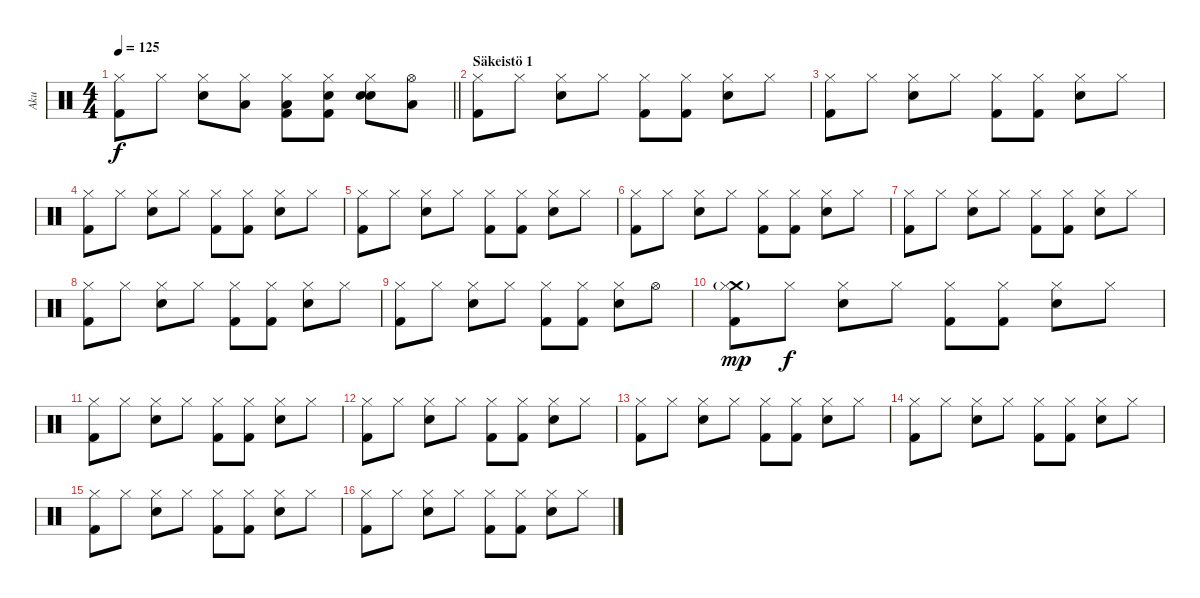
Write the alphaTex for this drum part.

\track ("Aku" "Aku") {instrument percussion}
\staff {score}
\articulation defaults
\ts (4 4)
\tempo 125
\clef neutral
\barLineRight lightlight
\ks c
("Hi-Hat (closed)" "Kick (hit) 2").8{dy f} "Hi-Hat (closed)".8 ("Hi-Hat (closed)" "Snare (hit) 2").8 ("Low Tom (hit)" "Hi-Hat (closed)").8 ("Low Tom (hit)" "Hi-Hat (closed)" "Kick (hit) 2").8 ("Snare (hit) 2" "Hi-Hat (closed)" "Kick (hit) 2").8 ("Snare (hit) 2" "Hi-Hat (closed)" "Snare (hit) 2").8 ("Low Tom (hit)" "Hi-Hat (open)").8 |
\section ("" "Säkeistö 1")
("Hi-Hat (closed)" "Kick (hit) 2").8 "Hi-Hat (closed)".8 ("Hi-Hat (closed)" "Snare (hit) 2").8 "Hi-Hat (closed)".8 ("Hi-Hat (closed)" "Kick (hit) 2").8 ("Hi-Hat (closed)" "Kick (hit) 2").8 ("Hi-Hat (closed)" "Snare (hit) 2").8 "Hi-Hat (closed)".8 |
("Hi-Hat (closed)" "Kick (hit) 2").8 "Hi-Hat (closed)".8 ("Hi-Hat (closed)" "Snare (hit) 2").8 "Hi-Hat (closed)".8 ("Hi-Hat (closed)" "Kick (hit) 2").8 ("Hi-Hat (closed)" "Kick (hit) 2").8 ("Hi-Hat (closed)" "Snare (hit) 2").8 "Hi-Hat (closed)".8 |
("Hi-Hat (closed)" "Kick (hit) 2").8 "Hi-Hat (closed)".8 ("Hi-Hat (closed)" "Snare (hit) 2").8 "Hi-Hat (closed)".8 ("Hi-Hat (closed)" "Kick (hit) 2").8 ("Hi-Hat (closed)" "Kick (hit) 2").8 ("Hi-Hat (closed)" "Snare (hit) 2").8 "Hi-Hat (closed)".8 |
("Hi-Hat (closed)" "Kick (hit) 2").8 "Hi-Hat (closed)".8 ("Hi-Hat (closed)" "Snare (hit) 2").8 "Hi-Hat (closed)".8 ("Hi-Hat (closed)" "Kick (hit) 2").8 ("Hi-Hat (closed)" "Kick (hit) 2").8 ("Hi-Hat (closed)" "Snare (hit) 2").8 "Hi-Hat (closed)".8 |
("Hi-Hat (closed)" "Kick (hit) 2").8 "Hi-Hat (closed)".8 ("Hi-Hat (closed)" "Snare (hit) 2").8 "Hi-Hat (closed)".8 ("Hi-Hat (closed)" "Kick (hit) 2").8 ("Hi-Hat (closed)" "Kick (hit) 2").8 ("Hi-Hat (closed)" "Snare (hit) 2").8 "Hi-Hat (closed)".8 |
("Hi-Hat (closed)" "Kick (hit) 2").8 "Hi-Hat (closed)".8 ("Hi-Hat (closed)" "Snare (hit) 2").8 "Hi-Hat (closed)".8 ("Hi-Hat (closed)" "Kick (hit) 2").8 ("Hi-Hat (closed)" "Kick (hit) 2").8 ("Hi-Hat (closed)" "Snare (hit) 2").8 "Hi-Hat (closed)".8 |
("Hi-Hat (closed)" "Kick (hit) 2").8 "Hi-Hat (closed)".8 ("Hi-Hat (closed)" "Snare (hit) 2").8 "Hi-Hat (closed)".8 ("Hi-Hat (closed)" "Kick (hit) 2").8 ("Hi-Hat (closed)" "Kick (hit) 2").8 ("Hi-Hat (closed)" "Snare (hit) 2").8 "Hi-Hat (closed)".8 |
("Hi-Hat (closed)" "Kick (hit) 2").8 "Hi-Hat (closed)".8 ("Hi-Hat (closed)" "Snare (hit) 2").8 "Hi-Hat (closed)".8 ("Hi-Hat (closed)" "Kick (hit) 2").8 ("Hi-Hat (closed)" "Kick (hit) 2").8 ("Hi-Hat (closed)" "Snare (hit) 2").8 "Hi-Hat (open)".8 |
("Crash medium (hit)"{g} "Hi-Hat (closed)" "Kick (hit) 2").8{dy mp} "Hi-Hat (closed)".8{dy f} ("Hi-Hat (closed)" "Snare (hit) 2").8 "Hi-Hat (closed)".8 ("Hi-Hat (closed)" "Kick (hit) 2").8 ("Hi-Hat (closed)" "Kick (hit) 2").8 ("Hi-Hat (closed)" "Snare (hit) 2").8 "Hi-Hat (closed)".8 |
("Hi-Hat (closed)" "Kick (hit) 2").8 "Hi-Hat (closed)".8 ("Hi-Hat (closed)" "Snare (hit) 2").8 "Hi-Hat (closed)".8 ("Hi-Hat (closed)" "Kick (hit) 2").8 ("Hi-Hat (closed)" "Kick (hit) 2").8 ("Hi-Hat (closed)" "Snare (hit) 2").8 "Hi-Hat (closed)".8 |
("Hi-Hat (closed)" "Kick (hit) 2").8 "Hi-Hat (closed)".8 ("Hi-Hat (closed)" "Snare (hit) 2").8 "Hi-Hat (closed)".8 ("Hi-Hat (closed)" "Kick (hit) 2").8 ("Hi-Hat (closed)" "Kick (hit) 2").8 ("Hi-Hat (closed)" "Snare (hit) 2").8 "Hi-Hat (closed)".8 |
("Hi-Hat (closed)" "Kick (hit) 2").8 "Hi-Hat (closed)".8 ("Hi-Hat (closed)" "Snare (hit) 2").8 "Hi-Hat (closed)".8 ("Hi-Hat (closed)" "Kick (hit) 2").8 ("Hi-Hat (closed)" "Kick (hit) 2").8 ("Hi-Hat (closed)" "Snare (hit) 2").8 "Hi-Hat (closed)".8 |
("Hi-Hat (closed)" "Kick (hit) 2").8 "Hi-Hat (closed)".8 ("Hi-Hat (closed)" "Snare (hit) 2").8 "Hi-Hat (closed)".8 ("Hi-Hat (closed)" "Kick (hit) 2").8 ("Hi-Hat (closed)" "Kick (hit) 2").8 ("Hi-Hat (closed)" "Snare (hit) 2").8 "Hi-Hat (closed)".8 |
("Hi-Hat (closed)" "Kick (hit) 2").8 "Hi-Hat (closed)".8 ("Hi-Hat (closed)" "Snare (hit) 2").8 "Hi-Hat (closed)".8 ("Hi-Hat (closed)" "Kick (hit) 2").8 ("Hi-Hat (closed)" "Kick (hit) 2").8 ("Hi-Hat (closed)" "Snare (hit) 2").8 "Hi-Hat (closed)".8 |
("Hi-Hat (closed)" "Kick (hit) 2").8 "Hi-Hat (closed)".8 ("Hi-Hat (closed)" "Snare (hit) 2").8 "Hi-Hat (closed)".8 ("Hi-Hat (closed)" "Kick (hit) 2").8 ("Hi-Hat (closed)" "Kick (hit) 2").8 ("Hi-Hat (closed)" "Snare (hit) 2").8 "Hi-Hat (closed)".8
